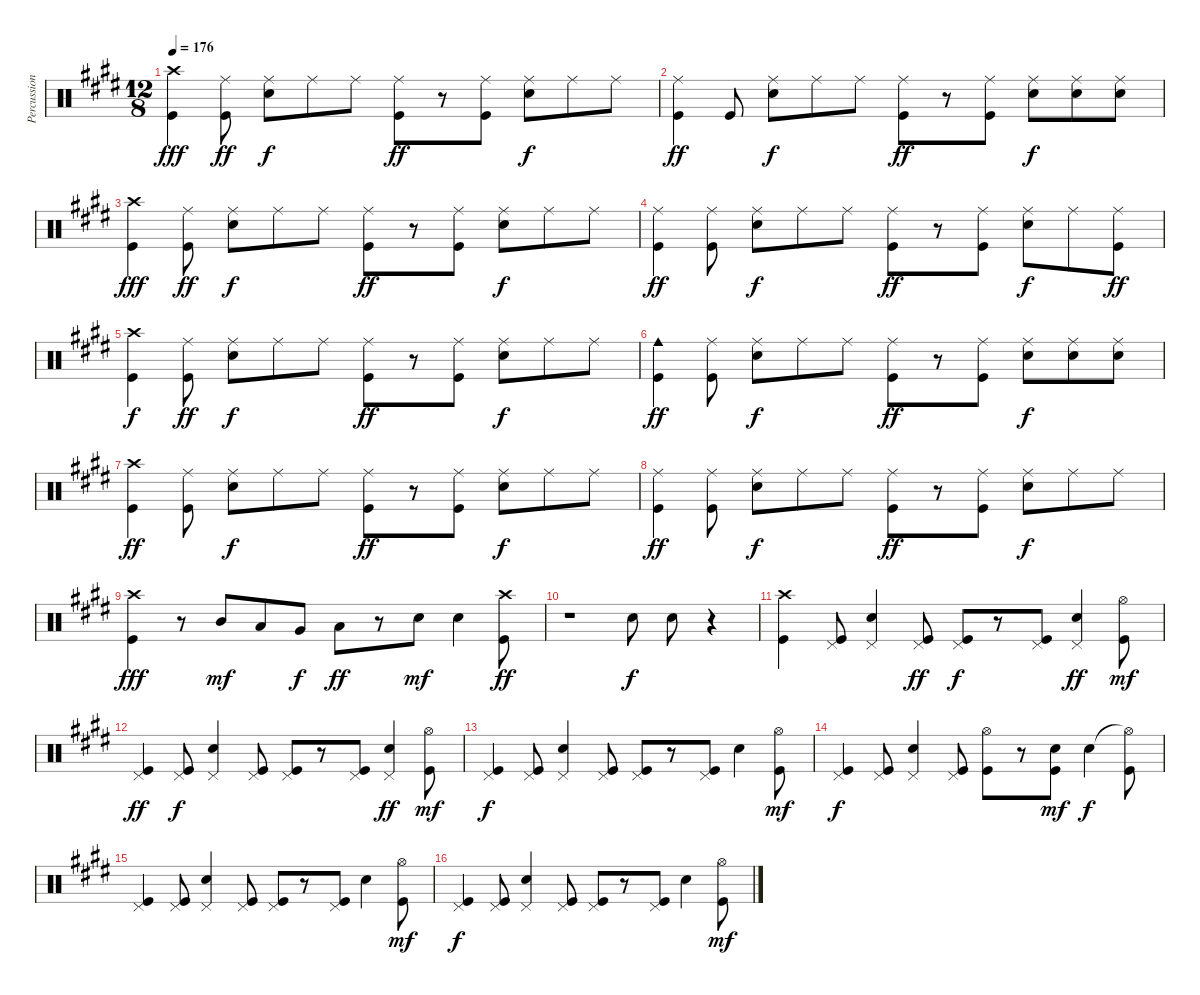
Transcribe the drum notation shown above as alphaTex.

\track ("Percussion" "Percussion") {instrument percussion}
\staff {score}
\articulation defaults
\ts (12 8)
\tempo 176
\clef neutral
\ks e
("Crash high (hit)" "Kick (hit)").4{dy fff} ("Ride (middle)" "Kick (hit)").8{dy ff} ("Ride (middle)" "Electric Snare (hit)").8{dy f} "Ride (middle)".8 "Ride (middle)".8 ("Ride (middle)" "Kick (hit)").8{dy ff} r.8 ("Ride (middle)" "Kick (hit)").8 ("Ride (middle)" "Electric Snare (hit)").8{dy f} "Ride (middle)".8 "Ride (middle)".8 |
("Ride (middle)" "Kick (hit)").4{dy ff} "Kick (hit)".8 ("Ride (middle)" "Electric Snare (hit)").8{dy f} "Ride (middle)".8 "Ride (middle)".8 ("Ride (middle)" "Kick (hit)").8{dy ff} r.8 ("Ride (middle)" "Kick (hit)").8 ("Ride (middle)" "Electric Snare (hit)").8{dy f} ("Ride (middle)" "Electric Snare (hit)").8 ("Ride (middle)" "Electric Snare (hit)").8 |
("Crash high (hit)" "Kick (hit)").4{dy fff} ("Ride (middle)" "Kick (hit)").8{dy ff} ("Ride (middle)" "Electric Snare (hit)").8{dy f} "Ride (middle)".8 "Ride (middle)".8 ("Ride (middle)" "Kick (hit)").8{dy ff} r.8 ("Ride (middle)" "Kick (hit)").8 ("Ride (middle)" "Electric Snare (hit)").8{dy f} "Ride (middle)".8 "Ride (middle)".8 |
("Ride (middle)" "Kick (hit)").4{dy ff} ("Ride (middle)" "Kick (hit)").8 ("Ride (middle)" "Electric Snare (hit)").8{dy f} "Ride (middle)".8 "Ride (middle)".8 ("Ride (middle)" "Kick (hit)").8{dy ff} r.8 ("Ride (middle)" "Kick (hit)").8 ("Ride (middle)" "Electric Snare (hit)").8{dy f} "Ride (middle)".8 ("Ride (middle)" "Kick (hit)").8{dy ff} |
("Crash high (hit)" "Kick (hit)").4{dy f} ("Ride (middle)" "Kick (hit)").8{dy ff} ("Ride (middle)" "Electric Snare (hit)").8{dy f} "Ride (middle)".8 "Ride (middle)".8 ("Ride (middle)" "Kick (hit)").8{dy ff} r.8 ("Ride (middle)" "Kick (hit)").8 ("Ride (middle)" "Electric Snare (hit)").8{dy f} "Ride (middle)".8 "Ride (middle)".8 |
("Cowbell medium (hit)" "Kick (hit)").4{dy ff} ("Ride (middle)" "Kick (hit)").8 ("Ride (middle)" "Electric Snare (hit)").8{dy f} "Ride (middle)".8 "Ride (middle)".8 ("Ride (middle)" "Kick (hit)").8{dy ff} r.8 ("Ride (middle)" "Kick (hit)").8 ("Ride (middle)" "Electric Snare (hit)").8{dy f} ("Ride (middle)" "Electric Snare (hit)").8 ("Ride (middle)" "Electric Snare (hit)").8 |
("Crash high (hit)" "Kick (hit)").4{dy ff} ("Ride (middle)" "Kick (hit)").8 ("Ride (middle)" "Electric Snare (hit)").8{dy f} "Ride (middle)".8 "Ride (middle)".8 ("Ride (middle)" "Kick (hit)").8{dy ff} r.8 ("Ride (middle)" "Kick (hit)").8 ("Ride (middle)" "Electric Snare (hit)").8{dy f} "Ride (middle)".8 "Ride (middle)".8 |
("Ride (middle)" "Kick (hit)").4{dy ff} ("Ride (middle)" "Kick (hit)").8 ("Ride (middle)" "Electric Snare (hit)").8{dy f} "Ride (middle)".8 "Ride (middle)".8 ("Ride (middle)" "Kick (hit)").8{dy ff} r.8 ("Ride (middle)" "Kick (hit)").8 ("Ride (middle)" "Electric Snare (hit)").8{dy f} "Ride (middle)".8 "Ride (middle)".8 |
("Crash high (hit)" "Kick (hit)").4{dy fff} r.8 "Mid Tom (hit)".8{dy mf} "Low Tom (hit)".8 "Very Low Tom (hit)".8{dy f} "Low Floor Tom (hit)".8{dy ff} r.8 "Snare (hit) 2".8{dy mf} "Electric Snare (hit)".4 ("Crash high (hit)" "Kick (hit)").8{dy ff} |
r.1 "Electric Snare (hit)".8{dy f} "Electric Snare (hit)".8 r.4 |
("Crash high (hit)" "Kick (hit)").4 ("Pedal Hi-Hat (hit)" "Kick (hit)").8 ("Electric Snare (hit)" "Pedal Hi-Hat (hit)").4 ("Pedal Hi-Hat (hit)" "Kick (hit)").8{dy ff} ("Pedal Hi-Hat (hit)" "Kick (hit)").8{dy f} r.8 ("Pedal Hi-Hat (hit)" "Kick (hit)").8 ("Electric Snare (hit)" "Pedal Hi-Hat (hit)").4{dy ff} ("Hi-Hat (open)" "Kick (hit)").8{dy mf} |
("Pedal Hi-Hat (hit)" "Kick (hit)").4{dy ff} ("Pedal Hi-Hat (hit)" "Kick (hit)").8{dy f} ("Electric Snare (hit)" "Pedal Hi-Hat (hit)").4 ("Pedal Hi-Hat (hit)" "Kick (hit)").8 ("Pedal Hi-Hat (hit)" "Kick (hit)").8 r.8 ("Pedal Hi-Hat (hit)" "Kick (hit)").8 ("Electric Snare (hit)" "Pedal Hi-Hat (hit)").4{dy ff} ("Hi-Hat (open)" "Kick (hit)").8{dy mf} |
("Pedal Hi-Hat (hit)" "Kick (hit)").4{dy f} ("Pedal Hi-Hat (hit)" "Kick (hit)").8 ("Electric Snare (hit)" "Pedal Hi-Hat (hit)").4 ("Pedal Hi-Hat (hit)" "Kick (hit)").8 ("Pedal Hi-Hat (hit)" "Kick (hit)").8 r.8 ("Pedal Hi-Hat (hit)" "Kick (hit)").8 "Electric Snare (hit)".4 ("Hi-Hat (open)" "Kick (hit)").8{dy mf} |
("Pedal Hi-Hat (hit)" "Kick (hit)").4{dy f} ("Pedal Hi-Hat (hit)" "Kick (hit)").8 ("Electric Snare (hit)" "Pedal Hi-Hat (hit)").4 ("Pedal Hi-Hat (hit)" "Kick (hit)").8 ("Hi-Hat (open)" "Kick (hit)").8 r.8 ("Electric Snare (hit)" "Kick (hit)").8{dy mf} "Electric Snare (hit)".4{dy f} ("Hi-Hat (open)"{t} "Kick (hit)").8 |
("Pedal Hi-Hat (hit)" "Kick (hit)").4 ("Pedal Hi-Hat (hit)" "Kick (hit)").8 ("Electric Snare (hit)" "Pedal Hi-Hat (hit)").4 ("Pedal Hi-Hat (hit)" "Kick (hit)").8 ("Pedal Hi-Hat (hit)" "Kick (hit)").8 r.8 ("Pedal Hi-Hat (hit)" "Kick (hit)").8 "Electric Snare (hit)".4 ("Hi-Hat (open)" "Kick (hit)").8{dy mf} |
("Pedal Hi-Hat (hit)" "Kick (hit)").4{dy f} ("Pedal Hi-Hat (hit)" "Kick (hit)").8 ("Electric Snare (hit)" "Pedal Hi-Hat (hit)").4 ("Pedal Hi-Hat (hit)" "Kick (hit)").8 ("Pedal Hi-Hat (hit)" "Kick (hit)").8 r.8 ("Pedal Hi-Hat (hit)" "Kick (hit)").8 "Electric Snare (hit)".4 ("Hi-Hat (open)" "Kick (hit)").8{dy mf}
